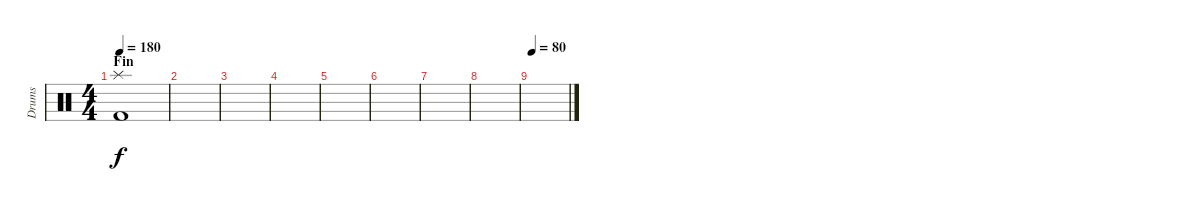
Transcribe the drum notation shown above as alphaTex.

\track ("Drums" "Drums") {instrument percussion}
\staff {score}
\articulation defaults
\ts (4 4)
\section ("" "Fin")
\tempo 180
\clef neutral
\ks c
("Splash (hit)" "Kick (hit) 2").1{dy f} |
|
|
|
|
|
|
|
\tempo 80
